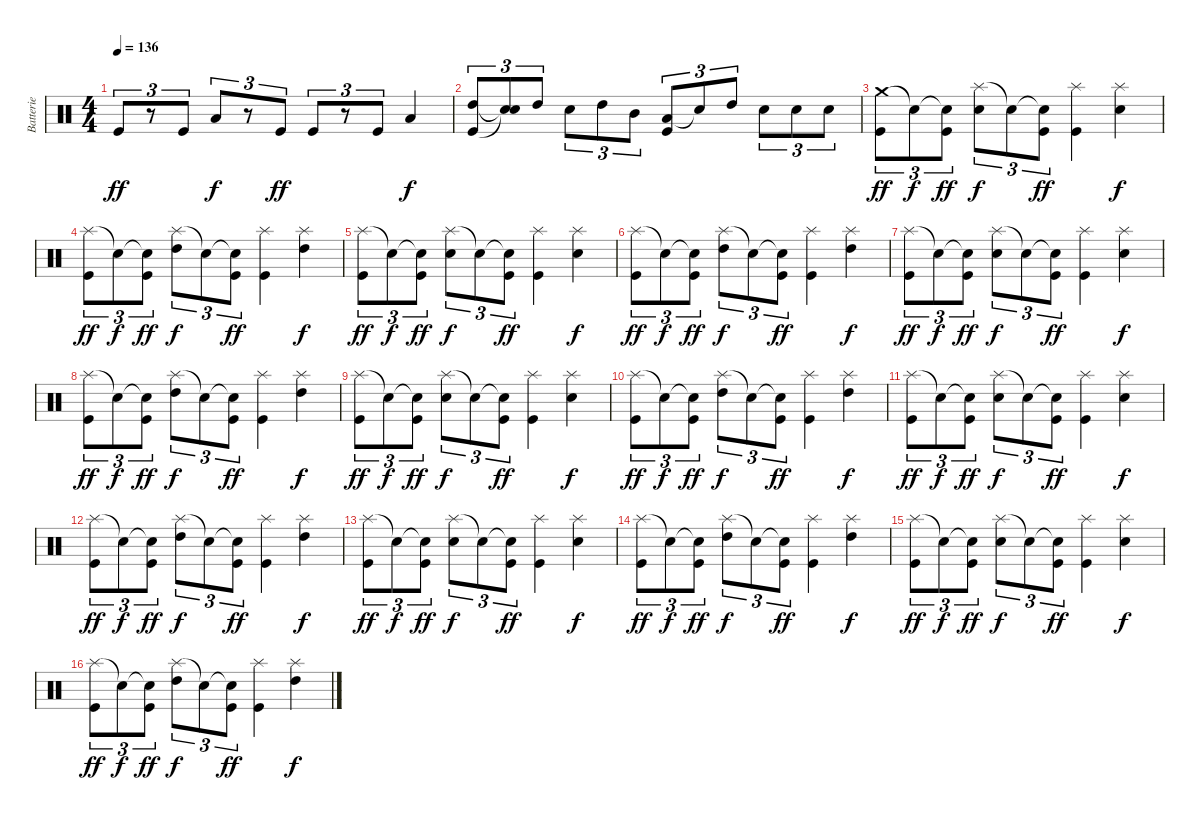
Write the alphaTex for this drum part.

\track ("Batterie" "Batterie") {instrument percussion}
\staff {score}
\articulation defaults
\ts (4 4)
\tempo 136
\clef neutral
\ks c "Kick (hit)".8{tu (3 2) dy ff}
r.8{tu (3 2)} "Kick (hit)".8{tu (3 2)} "Low Tom (hit)".8{tu (3 2) dy f} r.8{tu (3 2)} "Kick (hit)".8{tu (3 2) dy ff} "Kick (hit)".8{tu (3 2)} r.8{tu (3 2)} "Kick (hit)".8{tu (3 2)} "Low Tom (hit)".4{dy f} |
("High Tom (hit)" "Kick (hit)").8{tu (3 2)} ("Snare (hit)"{t} "Snare (hit)"{t}).8{tu (3 2)} "High Tom (hit)".8{tu (3 2)} "Snare (hit) 2".8{tu (3 2)} "High Tom (hit)".8{tu (3 2)} "Mid Tom (hit)".8{tu (3 2)} ("Low Tom (hit)" "Kick (hit)").8{tu (3 2)} "Snare (hit)"{t}.8{tu (3 2)} "High Tom (hit)".8{tu (3 2)} "Snare (hit) 2".8{tu (3 2)} "Snare (hit) 2".8{tu (3 2)} "Snare (hit) 2".8{tu (3 2)} |
("Crash medium (hit)" "Kick (hit)").8{tu (3 2) dy ff} "Snare (hit)"{t}.8{tu (3 2) dy f} ("Snare (hit)"{t} "Kick (hit)").8{tu (3 2) dy ff} ("Splash (hit)" "Snare (hit) 2").8{tu (3 2) dy f} "Snare (hit)"{t}.8{tu (3 2)} ("Snare (hit)"{t} "Kick (hit)").8{tu (3 2) dy ff} ("Splash (hit)" "Kick (hit)").4 ("Splash (hit)" "Snare (hit) 2").4{dy f} |
("Splash (hit)" "Kick (hit)").8{tu (3 2) dy ff} "Snare (hit)"{t}.8{tu (3 2) dy f} ("Snare (hit)"{t} "Kick (hit)").8{tu (3 2) dy ff} ("Splash (hit)" "High Tom (hit)").8{tu (3 2) dy f} "Snare (hit)"{t}.8{tu (3 2)} ("Snare (hit)"{t} "Kick (hit)").8{tu (3 2) dy ff} ("Splash (hit)" "Kick (hit)").4 ("Splash (hit)" "High Tom (hit)").4{dy f} |
("Splash (hit)" "Kick (hit)").8{tu (3 2) dy ff} "Snare (hit)"{t}.8{tu (3 2) dy f} ("Snare (hit)"{t} "Kick (hit)").8{tu (3 2) dy ff} ("Splash (hit)" "Snare (hit) 2").8{tu (3 2) dy f} "Snare (hit)"{t}.8{tu (3 2)} ("Snare (hit)"{t} "Kick (hit)").8{tu (3 2) dy ff} ("Splash (hit)" "Kick (hit)").4 ("Splash (hit)" "Snare (hit) 2").4{dy f} |
("Splash (hit)" "Kick (hit)").8{tu (3 2) dy ff} "Snare (hit)"{t}.8{tu (3 2) dy f} ("Snare (hit)"{t} "Kick (hit)").8{tu (3 2) dy ff} ("Splash (hit)" "High Tom (hit)").8{tu (3 2) dy f} "Snare (hit)"{t}.8{tu (3 2)} ("Snare (hit)"{t} "Kick (hit)").8{tu (3 2) dy ff} ("Splash (hit)" "Kick (hit)").4 ("Splash (hit)" "High Tom (hit)").4{dy f} |
("Splash (hit)" "Kick (hit)").8{tu (3 2) dy ff} "Snare (hit)"{t}.8{tu (3 2) dy f} ("Snare (hit)"{t} "Kick (hit)").8{tu (3 2) dy ff} ("Splash (hit)" "Snare (hit) 2").8{tu (3 2) dy f} "Snare (hit)"{t}.8{tu (3 2)} ("Snare (hit)"{t} "Kick (hit)").8{tu (3 2) dy ff} ("Splash (hit)" "Kick (hit)").4 ("Splash (hit)" "Snare (hit) 2").4{dy f} |
("Splash (hit)" "Kick (hit)").8{tu (3 2) dy ff} "Snare (hit)"{t}.8{tu (3 2) dy f} ("Snare (hit)"{t} "Kick (hit)").8{tu (3 2) dy ff} ("Splash (hit)" "High Tom (hit)").8{tu (3 2) dy f} "Snare (hit)"{t}.8{tu (3 2)} ("Snare (hit)"{t} "Kick (hit)").8{tu (3 2) dy ff} ("Splash (hit)" "Kick (hit)").4 ("Splash (hit)" "High Tom (hit)").4{dy f} |
("Splash (hit)" "Kick (hit)").8{tu (3 2) dy ff} "Snare (hit)"{t}.8{tu (3 2) dy f} ("Snare (hit)"{t} "Kick (hit)").8{tu (3 2) dy ff} ("Splash (hit)" "Snare (hit) 2").8{tu (3 2) dy f} "Snare (hit)"{t}.8{tu (3 2)} ("Snare (hit)"{t} "Kick (hit)").8{tu (3 2) dy ff} ("Splash (hit)" "Kick (hit)").4 ("Splash (hit)" "Snare (hit) 2").4{dy f} |
("Splash (hit)" "Kick (hit)").8{tu (3 2) dy ff} "Snare (hit)"{t}.8{tu (3 2) dy f} ("Snare (hit)"{t} "Kick (hit)").8{tu (3 2) dy ff} ("Splash (hit)" "High Tom (hit)").8{tu (3 2) dy f} "Snare (hit)"{t}.8{tu (3 2)} ("Snare (hit)"{t} "Kick (hit)").8{tu (3 2) dy ff} ("Splash (hit)" "Kick (hit)").4 ("Splash (hit)" "High Tom (hit)").4{dy f} |
("Splash (hit)" "Kick (hit)").8{tu (3 2) dy ff} "Snare (hit)"{t}.8{tu (3 2) dy f} ("Snare (hit)"{t} "Kick (hit)").8{tu (3 2) dy ff} ("Splash (hit)" "Snare (hit) 2").8{tu (3 2) dy f} "Snare (hit)"{t}.8{tu (3 2)} ("Snare (hit)"{t} "Kick (hit)").8{tu (3 2) dy ff} ("Splash (hit)" "Kick (hit)").4 ("Splash (hit)" "Snare (hit) 2").4{dy f} |
("Splash (hit)" "Kick (hit)").8{tu (3 2) dy ff} "Snare (hit)"{t}.8{tu (3 2) dy f} ("Snare (hit)"{t} "Kick (hit)").8{tu (3 2) dy ff} ("Splash (hit)" "High Tom (hit)").8{tu (3 2) dy f} "Snare (hit)"{t}.8{tu (3 2)} ("Snare (hit)"{t} "Kick (hit)").8{tu (3 2) dy ff} ("Splash (hit)" "Kick (hit)").4 ("Splash (hit)" "High Tom (hit)").4{dy f} |
("Splash (hit)" "Kick (hit)").8{tu (3 2) dy ff} "Snare (hit)"{t}.8{tu (3 2) dy f} ("Snare (hit)"{t} "Kick (hit)").8{tu (3 2) dy ff} ("Splash (hit)" "Snare (hit) 2").8{tu (3 2) dy f} "Snare (hit)"{t}.8{tu (3 2)} ("Snare (hit)"{t} "Kick (hit)").8{tu (3 2) dy ff} ("Splash (hit)" "Kick (hit)").4 ("Splash (hit)" "Snare (hit) 2").4{dy f} |
("Splash (hit)" "Kick (hit)").8{tu (3 2) dy ff} "Snare (hit)"{t}.8{tu (3 2) dy f} ("Snare (hit)"{t} "Kick (hit)").8{tu (3 2) dy ff} ("Splash (hit)" "High Tom (hit)").8{tu (3 2) dy f} "Snare (hit)"{t}.8{tu (3 2)} ("Snare (hit)"{t} "Kick (hit)").8{tu (3 2) dy ff} ("Splash (hit)" "Kick (hit)").4 ("Splash (hit)" "High Tom (hit)").4{dy f} |
("Splash (hit)" "Kick (hit)").8{tu (3 2) dy ff} "Snare (hit)"{t}.8{tu (3 2) dy f} ("Snare (hit)"{t} "Kick (hit)").8{tu (3 2) dy ff} ("Splash (hit)" "Snare (hit) 2").8{tu (3 2) dy f} "Snare (hit)"{t}.8{tu (3 2)} ("Snare (hit)"{t} "Kick (hit)").8{tu (3 2) dy ff} ("Splash (hit)" "Kick (hit)").4 ("Splash (hit)" "Snare (hit) 2").4{dy f} |
("Splash (hit)" "Kick (hit)").8{tu (3 2) dy ff} "Snare (hit)"{t}.8{tu (3 2) dy f} ("Snare (hit)"{t} "Kick (hit)").8{tu (3 2) dy ff} ("Splash (hit)" "High Tom (hit)").8{tu (3 2) dy f} "Snare (hit)"{t}.8{tu (3 2)} ("Snare (hit)"{t} "Kick (hit)").8{tu (3 2) dy ff} ("Splash (hit)" "Kick (hit)").4 ("Splash (hit)" "High Tom (hit)").4{dy f}
